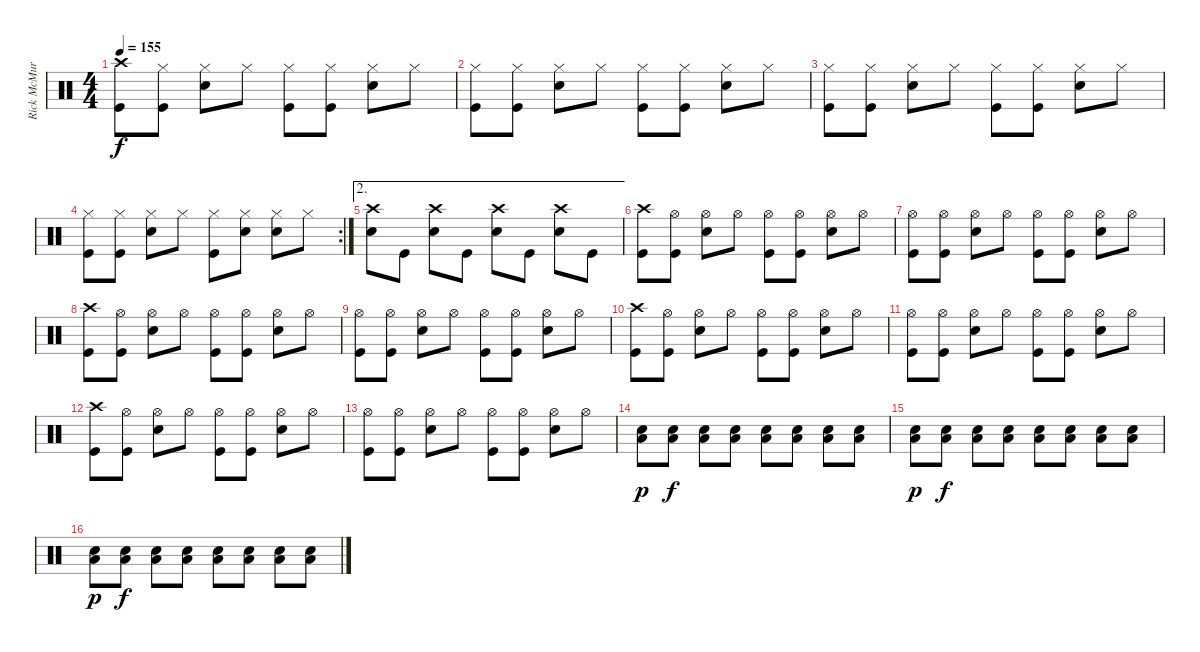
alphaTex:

\track ("Rick McMurray" "Rick McMur") {instrument percussion}
\staff {score}
\articulation defaults
\ts (4 4)
\tempo 155
\clef neutral
\ks c
("Crash high (hit)" "Kick (hit)").8{dy f} ("Hi-Hat (closed)" "Kick (hit)").8 ("Hi-Hat (closed)" "Snare (hit) 2").8 "Hi-Hat (closed)".8 ("Hi-Hat (closed)" "Kick (hit)").8 ("Hi-Hat (closed)" "Kick (hit)").8 ("Hi-Hat (closed)" "Snare (hit) 2").8 "Hi-Hat (closed)".8 |
("Hi-Hat (closed)" "Kick (hit)").8 ("Hi-Hat (closed)" "Kick (hit)").8 ("Hi-Hat (closed)" "Snare (hit) 2").8 "Hi-Hat (closed)".8 ("Hi-Hat (closed)" "Kick (hit)").8 ("Hi-Hat (closed)" "Kick (hit)").8 ("Hi-Hat (closed)" "Snare (hit) 2").8 "Hi-Hat (closed)".8 |
("Hi-Hat (closed)" "Kick (hit)").8 ("Hi-Hat (closed)" "Kick (hit)").8 ("Hi-Hat (closed)" "Snare (hit) 2").8 "Hi-Hat (closed)".8 ("Hi-Hat (closed)" "Kick (hit)").8 ("Hi-Hat (closed)" "Kick (hit)").8 ("Hi-Hat (closed)" "Snare (hit) 2").8 "Hi-Hat (closed)".8 |
\rc 2
("Hi-Hat (closed)" "Kick (hit)").8 ("Hi-Hat (closed)" "Kick (hit)").8 ("Hi-Hat (closed)" "Snare (hit) 2").8 "Hi-Hat (closed)".8 ("Hi-Hat (closed)" "Kick (hit)").8 ("Hi-Hat (closed)" "Snare (hit) 2").8 ("Hi-Hat (closed)" "Snare (hit) 2").8 "Hi-Hat (closed)".8 |
\ae 2
("Crash high (hit)" "Snare (hit) 2").8 "Kick (hit)".8 ("Crash high (hit)" "Snare (hit) 2").8 "Kick (hit)".8 ("Crash high (hit)" "Snare (hit) 2").8 "Kick (hit)".8 ("Crash high (hit)" "Snare (hit) 2").8 "Kick (hit)".8 |
("Crash high (hit)" "Kick (hit)").8 ("Hi-Hat (open)" "Kick (hit)").8 ("Hi-Hat (open)" "Snare (hit) 2").8 "Hi-Hat (open)".8 ("Hi-Hat (open)" "Kick (hit)").8 ("Hi-Hat (open)" "Kick (hit)").8 ("Hi-Hat (open)" "Snare (hit) 2").8 "Hi-Hat (open)".8 |
("Hi-Hat (open)" "Kick (hit)").8 ("Hi-Hat (open)" "Kick (hit)").8 ("Hi-Hat (open)" "Snare (hit) 2").8 "Hi-Hat (open)".8 ("Hi-Hat (open)" "Kick (hit)").8 ("Hi-Hat (open)" "Kick (hit)").8 ("Hi-Hat (open)" "Snare (hit) 2").8 "Hi-Hat (open)".8 |
("Crash high (hit)" "Kick (hit)").8 ("Hi-Hat (open)" "Kick (hit)").8 ("Hi-Hat (open)" "Snare (hit) 2").8 "Hi-Hat (open)".8 ("Hi-Hat (open)" "Kick (hit)").8 ("Hi-Hat (open)" "Kick (hit)").8 ("Hi-Hat (open)" "Snare (hit) 2").8 "Hi-Hat (open)".8 |
("Hi-Hat (open)" "Kick (hit)").8 ("Hi-Hat (open)" "Kick (hit)").8 ("Hi-Hat (open)" "Snare (hit) 2").8 "Hi-Hat (open)".8 ("Hi-Hat (open)" "Kick (hit)").8 ("Hi-Hat (open)" "Kick (hit)").8 ("Hi-Hat (open)" "Snare (hit) 2").8 "Hi-Hat (open)".8 |
("Crash high (hit)" "Kick (hit)").8 ("Hi-Hat (open)" "Kick (hit)").8 ("Hi-Hat (open)" "Snare (hit) 2").8 "Hi-Hat (open)".8 ("Hi-Hat (open)" "Kick (hit)").8 ("Hi-Hat (open)" "Kick (hit)").8 ("Hi-Hat (open)" "Snare (hit) 2").8 "Hi-Hat (open)".8 |
("Hi-Hat (open)" "Kick (hit)").8 ("Hi-Hat (open)" "Kick (hit)").8 ("Hi-Hat (open)" "Snare (hit) 2").8 "Hi-Hat (open)".8 ("Hi-Hat (open)" "Kick (hit)").8 ("Hi-Hat (open)" "Kick (hit)").8 ("Hi-Hat (open)" "Snare (hit) 2").8 "Hi-Hat (open)".8 |
("Crash high (hit)" "Kick (hit)").8 ("Hi-Hat (open)" "Kick (hit)").8 ("Hi-Hat (open)" "Snare (hit) 2").8 "Hi-Hat (open)".8 ("Hi-Hat (open)" "Kick (hit)").8 ("Hi-Hat (open)" "Kick (hit)").8 ("Hi-Hat (open)" "Snare (hit) 2").8 "Hi-Hat (open)".8 |
("Hi-Hat (open)" "Kick (hit)").8 ("Hi-Hat (open)" "Kick (hit)").8 ("Hi-Hat (open)" "Snare (hit) 2").8 "Hi-Hat (open)".8 ("Hi-Hat (open)" "Kick (hit)").8 ("Hi-Hat (open)" "Kick (hit)").8 ("Hi-Hat (open)" "Snare (hit) 2").8 "Hi-Hat (open)".8 |
("Low Tom (hit)" "Snare (hit) 2").8{dy p volume 9} ("Low Tom (hit)" "Snare (hit) 2").8{dy f} ("Low Tom (hit)" "Snare (hit) 2").8 ("Low Tom (hit)" "Snare (hit) 2").8 ("Low Tom (hit)" "Snare (hit) 2").8 ("Low Tom (hit)" "Snare (hit) 2").8 ("Low Tom (hit)" "Snare (hit) 2").8 ("Low Tom (hit)" "Snare (hit) 2").8 |
("Low Tom (hit)" "Snare (hit) 2").8{dy p} ("Low Tom (hit)" "Snare (hit) 2").8{dy f} ("Low Tom (hit)" "Snare (hit) 2").8 ("Low Tom (hit)" "Snare (hit) 2").8 ("Low Tom (hit)" "Snare (hit) 2").8 ("Low Tom (hit)" "Snare (hit) 2").8 ("Low Tom (hit)" "Snare (hit) 2").8 ("Low Tom (hit)" "Snare (hit) 2").8 |
("Low Tom (hit)" "Snare (hit) 2").8{dy p} ("Low Tom (hit)" "Snare (hit) 2").8{dy f} ("Low Tom (hit)" "Snare (hit) 2").8 ("Low Tom (hit)" "Snare (hit) 2").8 ("Low Tom (hit)" "Snare (hit) 2").8 ("Low Tom (hit)" "Snare (hit) 2").8 ("Low Tom (hit)" "Snare (hit) 2").8 ("Low Tom (hit)" "Snare (hit) 2").8
